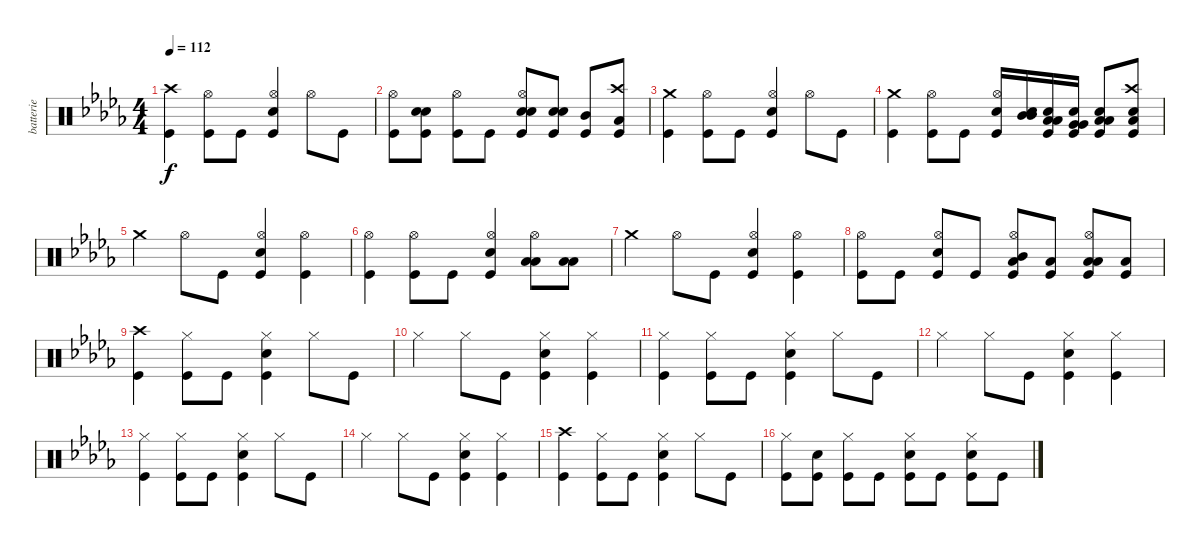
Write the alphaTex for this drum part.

\track ("batterie" "batterie") {instrument percussion}
\staff {score}
\articulation defaults
\ts (4 4)
\tempo 112
\clef neutral
\ks bbminor
("Kick (hit)" "Crash high (hit)").4{dy f} ("Kick (hit)" "Hi-Hat (open)").8 "Kick (hit)".8 ("Kick (hit)" "Snare (hit) 2" "Hi-Hat (open)").4 "Hi-Hat (open)".8 "Kick (hit)".8 |
("Kick (hit)" "Hi-Hat (open)").8 ("Kick (hit)" "Snare (hit) 2" "Snare (hit) 2").8 ("Kick (hit)" "Hi-Hat (open)").8 "Kick (hit)".8 ("Kick (hit)" "Snare (hit) 2" "Snare (hit) 2" "Hi-Hat (open)").8 ("Kick (hit)" "Snare (hit) 2" "Snare (hit) 2").8 ("Kick (hit)" "Mid Tom (hit)").8 ("Kick (hit)" "Low Tom (hit)" "Crash high (hit)").8 |
("Kick (hit)" "Crash medium (hit)").4 ("Kick (hit)" "Hi-Hat (open)").8 "Kick (hit)".8 ("Kick (hit)" "Snare (hit) 2" "Hi-Hat (open)").4 "Hi-Hat (open)".8 "Kick (hit)".8 |
("Kick (hit)" "Crash medium (hit)").4 ("Kick (hit)" "Hi-Hat (open)").8 "Kick (hit)".8 ("Kick (hit)" "Snare (hit) 2" "Hi-Hat (open)").16 ("Snare (hit) 2" "Mid Tom (hit)" "Mid Tom (hit)").16 ("Kick (hit)" "Snare (hit) 2" "Low Tom (hit)" "Low Tom (hit)").16 ("Kick (hit)" "Snare (hit) 2" "Very Low Tom (hit)" "Very Low Tom (hit)").16 ("Kick (hit)" "Snare (hit) 2" "Low Floor Tom (hit)" "Low Floor Tom (hit)").8 ("Kick (hit)" "Snare (hit) 2" "Crash high (hit)" "Low Floor Tom (hit)").8 |
"Crash medium (hit)".4 "Hi-Hat (open)".8 "Kick (hit)".8 ("Kick (hit)" "Snare (hit) 2" "Hi-Hat (open)").4 ("Kick (hit)" "Hi-Hat (open)").4 |
("Kick (hit)" "Hi-Hat (open)").4 ("Kick (hit)" "Hi-Hat (open)").8 "Kick (hit)".8 ("Kick (hit)" "Snare (hit) 2" "Hi-Hat (open)").4 ("Low Floor Tom (hit)" "Low Floor Tom (hit)" "Hi-Hat (open)").8 ("Low Floor Tom (hit)" "Low Floor Tom (hit)").8 |
"Crash medium (hit)".4 "Hi-Hat (open)".8 "Kick (hit)".8 ("Kick (hit)" "Snare (hit) 2" "Hi-Hat (open)").4 ("Kick (hit)" "Hi-Hat (open)").4 |
("Kick (hit)" "Hi-Hat (open)").8 "Kick (hit)".8 ("Kick (hit)" "Snare (hit) 2" "Hi-Hat (open)").8 "Kick (hit)".8 ("Kick (hit)" "Mid Tom (hit)" "Low Floor Tom (hit)" "Hi-Hat (open)").8 ("Kick (hit)" "Low Floor Tom (hit)").8 ("Kick (hit)" "Low Tom (hit)" "Low Floor Tom (hit)" "Hi-Hat (open)").8 ("Kick (hit)" "Low Floor Tom (hit)").8 |
("Kick (hit)" "Crash high (hit)").4 ("Kick (hit)" "Hi-Hat (closed)").8 "Kick (hit)".8 ("Kick (hit)" "Snare (hit) 2" "Hi-Hat (closed)").4 "Hi-Hat (closed)".8 "Kick (hit)".8 |
"Hi-Hat (closed)".4 "Hi-Hat (closed)".8 "Kick (hit)".8 ("Kick (hit)" "Snare (hit) 2" "Hi-Hat (closed)").4 ("Kick (hit)" "Hi-Hat (closed)").4 |
("Kick (hit)" "Hi-Hat (closed)").4 ("Kick (hit)" "Hi-Hat (closed)").8 "Kick (hit)".8 ("Kick (hit)" "Snare (hit) 2" "Hi-Hat (closed)").4 "Hi-Hat (closed)".8 "Kick (hit)".8 |
"Hi-Hat (closed)".4 "Hi-Hat (closed)".8 "Kick (hit)".8 ("Kick (hit)" "Snare (hit) 2" "Hi-Hat (closed)").4 ("Kick (hit)" "Hi-Hat (closed)").4 |
("Kick (hit)" "Hi-Hat (closed)").4 ("Kick (hit)" "Hi-Hat (closed)").8 "Kick (hit)".8 ("Kick (hit)" "Snare (hit) 2" "Hi-Hat (closed)").4 "Hi-Hat (closed)".8 "Kick (hit)".8 |
"Hi-Hat (closed)".4 "Hi-Hat (closed)".8 "Kick (hit)".8 ("Kick (hit)" "Snare (hit) 2" "Hi-Hat (closed)").4 ("Kick (hit)" "Hi-Hat (closed)").4 |
("Kick (hit)" "Crash high (hit)").4 ("Kick (hit)" "Hi-Hat (closed)").8 "Kick (hit)".8 ("Kick (hit)" "Snare (hit) 2" "Hi-Hat (closed)").4 "Hi-Hat (closed)".8 "Kick (hit)".8 |
("Kick (hit)" "Hi-Hat (closed)").8 ("Kick (hit)" "Snare (hit) 2").8 ("Kick (hit)" "Hi-Hat (closed)").8 "Kick (hit)".8 ("Kick (hit)" "Snare (hit) 2" "Hi-Hat (closed)").8 "Kick (hit)".8 ("Kick (hit)" "Snare (hit) 2" "Hi-Hat (closed)").8 "Kick (hit)".8
